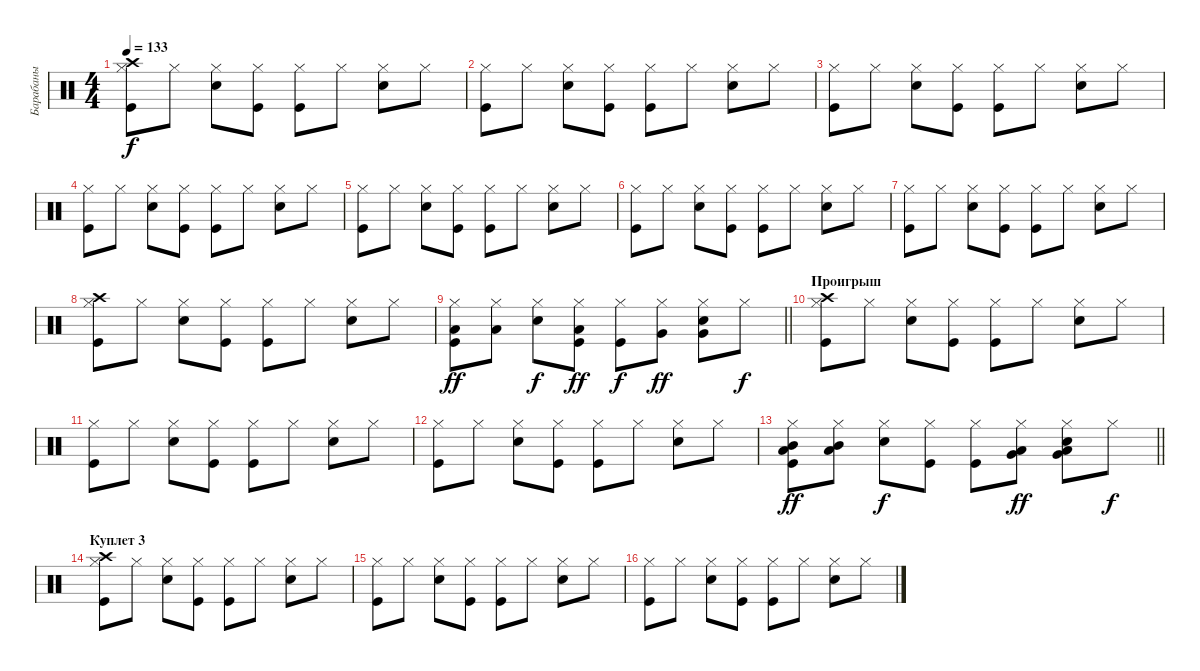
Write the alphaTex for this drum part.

\track ("Барабаны" "Барабаны") {instrument percussion}
\staff {score}
\articulation defaults
\ts (4 4)
\tempo 133
\clef neutral
\ks c
("Kick (hit)" "Hi-Hat (closed)" "Crash high (hit)").8{dy f} "Hi-Hat (closed)".8 ("Snare (hit) 2" "Hi-Hat (closed)").8 ("Kick (hit)" "Hi-Hat (closed)").8 ("Kick (hit)" "Hi-Hat (closed)").8 "Hi-Hat (closed)".8 ("Snare (hit) 2" "Hi-Hat (closed)").8 "Hi-Hat (closed)".8 |
("Kick (hit)" "Hi-Hat (closed)").8 "Hi-Hat (closed)".8 ("Snare (hit) 2" "Hi-Hat (closed)").8 ("Kick (hit)" "Hi-Hat (closed)").8 ("Kick (hit)" "Hi-Hat (closed)").8 "Hi-Hat (closed)".8 ("Snare (hit) 2" "Hi-Hat (closed)").8 "Hi-Hat (closed)".8 |
("Kick (hit)" "Hi-Hat (closed)").8 "Hi-Hat (closed)".8 ("Snare (hit) 2" "Hi-Hat (closed)").8 ("Kick (hit)" "Hi-Hat (closed)").8 ("Kick (hit)" "Hi-Hat (closed)").8 "Hi-Hat (closed)".8 ("Snare (hit) 2" "Hi-Hat (closed)").8 "Hi-Hat (closed)".8 |
("Kick (hit)" "Hi-Hat (closed)").8 "Hi-Hat (closed)".8 ("Snare (hit) 2" "Hi-Hat (closed)").8 ("Kick (hit)" "Hi-Hat (closed)").8 ("Kick (hit)" "Hi-Hat (closed)").8 "Hi-Hat (closed)".8 ("Snare (hit) 2" "Hi-Hat (closed)").8 "Hi-Hat (closed)".8 |
("Kick (hit)" "Hi-Hat (closed)").8 "Hi-Hat (closed)".8 ("Snare (hit) 2" "Hi-Hat (closed)").8 ("Kick (hit)" "Hi-Hat (closed)").8 ("Kick (hit)" "Hi-Hat (closed)").8 "Hi-Hat (closed)".8 ("Snare (hit) 2" "Hi-Hat (closed)").8 "Hi-Hat (closed)".8 |
("Kick (hit)" "Hi-Hat (closed)").8 "Hi-Hat (closed)".8 ("Snare (hit) 2" "Hi-Hat (closed)").8 ("Kick (hit)" "Hi-Hat (closed)").8 ("Kick (hit)" "Hi-Hat (closed)").8 "Hi-Hat (closed)".8 ("Snare (hit) 2" "Hi-Hat (closed)").8 "Hi-Hat (closed)".8 |
("Kick (hit)" "Hi-Hat (closed)").8 "Hi-Hat (closed)".8 ("Snare (hit) 2" "Hi-Hat (closed)").8 ("Kick (hit)" "Hi-Hat (closed)").8 ("Kick (hit)" "Hi-Hat (closed)").8 "Hi-Hat (closed)".8 ("Snare (hit) 2" "Hi-Hat (closed)").8 "Hi-Hat (closed)".8 |
("Kick (hit)" "Hi-Hat (closed)" "Crash high (hit)").8 "Hi-Hat (closed)".8 ("Snare (hit) 2" "Hi-Hat (closed)").8 ("Kick (hit)" "Hi-Hat (closed)").8 ("Kick (hit)" "Hi-Hat (closed)").8 "Hi-Hat (closed)".8 ("Snare (hit) 2" "Hi-Hat (closed)").8 "Hi-Hat (closed)".8 |
\barLineRight lightlight
("Kick (hit)" "Hi-Hat (closed)" "Low Tom (hit)").8{dy ff} ("Hi-Hat (closed)" "Low Tom (hit)").8 ("Snare (hit) 2" "Hi-Hat (closed)").8{dy f} ("Kick (hit)" "Hi-Hat (closed)" "Low Tom (hit)").8{dy ff} ("Kick (hit)" "Hi-Hat (closed)").8{dy f} ("Hi-Hat (closed)" "Very Low Tom (hit)").8{dy ff} ("Snare (hit) 2" "Hi-Hat (closed)" "Very Low Tom (hit)").8 "Hi-Hat (closed)".8{dy f} |
\section ("" "Проигрыш")
("Kick (hit)" "Hi-Hat (closed)" "Crash high (hit)").8 "Hi-Hat (closed)".8 ("Snare (hit) 2" "Hi-Hat (closed)").8 ("Kick (hit)" "Hi-Hat (closed)").8 ("Kick (hit)" "Hi-Hat (closed)").8 "Hi-Hat (closed)".8 ("Snare (hit) 2" "Hi-Hat (closed)").8 "Hi-Hat (closed)".8 |
("Kick (hit)" "Hi-Hat (closed)").8 "Hi-Hat (closed)".8 ("Snare (hit) 2" "Hi-Hat (closed)").8 ("Kick (hit)" "Hi-Hat (closed)").8 ("Kick (hit)" "Hi-Hat (closed)").8 "Hi-Hat (closed)".8 ("Snare (hit) 2" "Hi-Hat (closed)").8 "Hi-Hat (closed)".8 |
("Kick (hit)" "Hi-Hat (closed)").8 "Hi-Hat (closed)".8 ("Snare (hit) 2" "Hi-Hat (closed)").8 ("Kick (hit)" "Hi-Hat (closed)").8 ("Kick (hit)" "Hi-Hat (closed)").8 "Hi-Hat (closed)".8 ("Snare (hit) 2" "Hi-Hat (closed)").8 "Hi-Hat (closed)".8 |
\barLineRight lightlight
("Kick (hit)" "Hi-Hat (closed)" "Low Tom (hit)" "Mid Tom (hit)").8{dy ff} ("Hi-Hat (closed)" "Low Tom (hit)" "Mid Tom (hit)").8 ("Snare (hit) 2" "Hi-Hat (closed)").8{dy f} ("Kick (hit)" "Hi-Hat (closed)").8 ("Kick (hit)" "Hi-Hat (closed)").8 ("Hi-Hat (closed)" "Very Low Tom (hit)" "Low Tom (hit)").8{dy ff} ("Snare (hit) 2" "Hi-Hat (closed)" "Very Low Tom (hit)" "Low Tom (hit)").8 "Hi-Hat (closed)".8{dy f} |
\section ("" "Куплет 3")
("Kick (hit)" "Hi-Hat (closed)" "Crash high (hit)").8 "Hi-Hat (closed)".8 ("Snare (hit) 2" "Hi-Hat (closed)").8 ("Kick (hit)" "Hi-Hat (closed)").8 ("Kick (hit)" "Hi-Hat (closed)").8 "Hi-Hat (closed)".8 ("Snare (hit) 2" "Hi-Hat (closed)").8 "Hi-Hat (closed)".8 |
("Kick (hit)" "Hi-Hat (closed)").8 "Hi-Hat (closed)".8 ("Snare (hit) 2" "Hi-Hat (closed)").8 ("Kick (hit)" "Hi-Hat (closed)").8 ("Kick (hit)" "Hi-Hat (closed)").8 "Hi-Hat (closed)".8 ("Snare (hit) 2" "Hi-Hat (closed)").8 "Hi-Hat (closed)".8 |
("Kick (hit)" "Hi-Hat (closed)").8 "Hi-Hat (closed)".8 ("Snare (hit) 2" "Hi-Hat (closed)").8 ("Kick (hit)" "Hi-Hat (closed)").8 ("Kick (hit)" "Hi-Hat (closed)").8 "Hi-Hat (closed)".8 ("Snare (hit) 2" "Hi-Hat (closed)").8 "Hi-Hat (closed)".8
